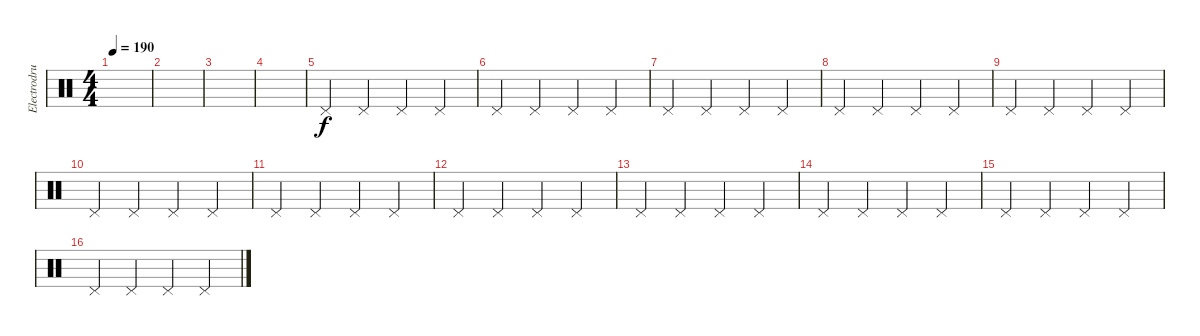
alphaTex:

\track ("Electrodrums1" "Electrodru") {instrument percussion}
\staff {score}
\articulation defaults
\ts (4 4)
\tempo 190
\clef neutral
\ks c
|
|
|
|
"Pedal Hi-Hat (hit)".4 "Pedal Hi-Hat (hit)".4 "Pedal Hi-Hat (hit)".4 "Pedal Hi-Hat (hit)".4 |
"Pedal Hi-Hat (hit)".4 "Pedal Hi-Hat (hit)".4 "Pedal Hi-Hat (hit)".4 "Pedal Hi-Hat (hit)".4 |
"Pedal Hi-Hat (hit)".4 "Pedal Hi-Hat (hit)".4 "Pedal Hi-Hat (hit)".4 "Pedal Hi-Hat (hit)".4 |
"Pedal Hi-Hat (hit)".4 "Pedal Hi-Hat (hit)".4 "Pedal Hi-Hat (hit)".4 "Pedal Hi-Hat (hit)".4 |
"Pedal Hi-Hat (hit)".4 "Pedal Hi-Hat (hit)".4 "Pedal Hi-Hat (hit)".4 "Pedal Hi-Hat (hit)".4 |
"Pedal Hi-Hat (hit)".4 "Pedal Hi-Hat (hit)".4 "Pedal Hi-Hat (hit)".4 "Pedal Hi-Hat (hit)".4 |
"Pedal Hi-Hat (hit)".4 "Pedal Hi-Hat (hit)".4 "Pedal Hi-Hat (hit)".4 "Pedal Hi-Hat (hit)".4 |
"Pedal Hi-Hat (hit)".4 "Pedal Hi-Hat (hit)".4 "Pedal Hi-Hat (hit)".4 "Pedal Hi-Hat (hit)".4 |
"Pedal Hi-Hat (hit)".4 "Pedal Hi-Hat (hit)".4 "Pedal Hi-Hat (hit)".4 "Pedal Hi-Hat (hit)".4 |
"Pedal Hi-Hat (hit)".4 "Pedal Hi-Hat (hit)".4 "Pedal Hi-Hat (hit)".4 "Pedal Hi-Hat (hit)".4 |
"Pedal Hi-Hat (hit)".4 "Pedal Hi-Hat (hit)".4 "Pedal Hi-Hat (hit)".4 "Pedal Hi-Hat (hit)".4 |
"Pedal Hi-Hat (hit)".4 "Pedal Hi-Hat (hit)".4 "Pedal Hi-Hat (hit)".4 "Pedal Hi-Hat (hit)".4
